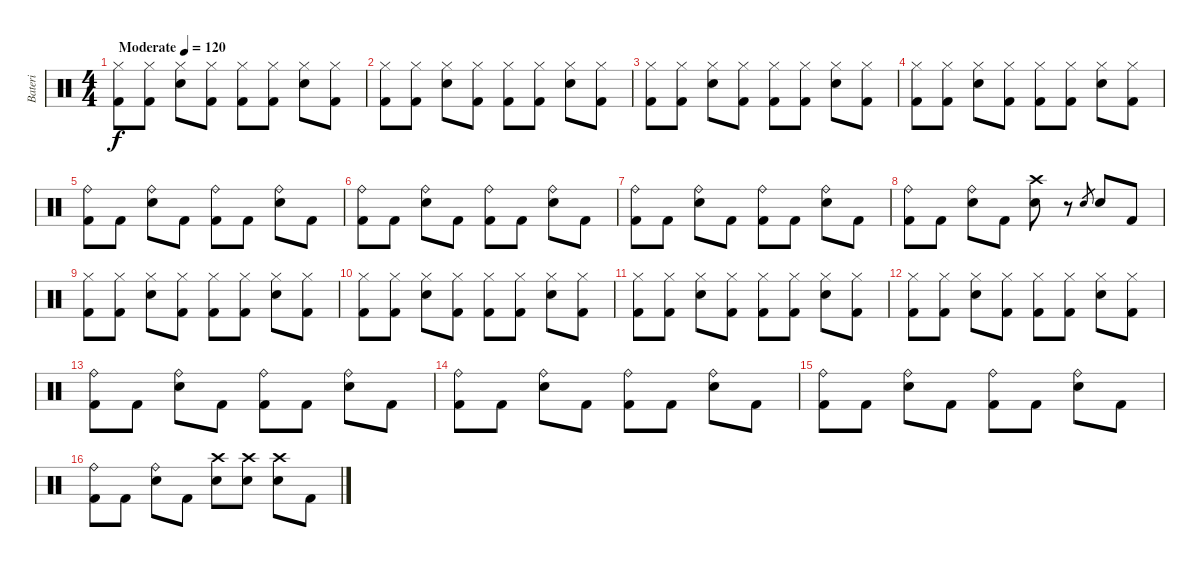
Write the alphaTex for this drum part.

\track ("Bateri" "Bateri") {instrument percussion}
\staff {score}
\articulation defaults
\ts (4 4)
\tempo (120 "Moderate")
\clef neutral
\ks c
("Hi-Hat (closed)" "Kick (hit) 2").8{dy f} ("Hi-Hat (closed)" "Kick (hit) 2").8 ("Hi-Hat (closed)" "Snare (hit) 2").8 ("Hi-Hat (closed)" "Kick (hit) 2").8 ("Hi-Hat (closed)" "Kick (hit) 2").8 ("Hi-Hat (closed)" "Kick (hit) 2").8 ("Hi-Hat (closed)" "Snare (hit) 2").8 ("Hi-Hat (closed)" "Kick (hit) 2").8 |
("Hi-Hat (closed)" "Kick (hit) 2").8 ("Hi-Hat (closed)" "Kick (hit) 2").8 ("Hi-Hat (closed)" "Snare (hit) 2").8 ("Hi-Hat (closed)" "Kick (hit) 2").8 ("Hi-Hat (closed)" "Kick (hit) 2").8 ("Hi-Hat (closed)" "Kick (hit) 2").8 ("Hi-Hat (closed)" "Snare (hit) 2").8 ("Hi-Hat (closed)" "Kick (hit) 2").8 |
("Hi-Hat (closed)" "Kick (hit) 2").8 ("Hi-Hat (closed)" "Kick (hit) 2").8 ("Hi-Hat (closed)" "Snare (hit) 2").8 ("Hi-Hat (closed)" "Kick (hit) 2").8 ("Hi-Hat (closed)" "Kick (hit) 2").8 ("Hi-Hat (closed)" "Kick (hit) 2").8 ("Hi-Hat (closed)" "Snare (hit) 2").8 ("Hi-Hat (closed)" "Kick (hit) 2").8 |
("Hi-Hat (closed)" "Kick (hit) 2").8 ("Hi-Hat (closed)" "Kick (hit) 2").8 ("Hi-Hat (closed)" "Snare (hit) 2").8 ("Hi-Hat (closed)" "Kick (hit) 2").8 ("Hi-Hat (closed)" "Kick (hit) 2").8 ("Hi-Hat (closed)" "Kick (hit) 2").8 ("Hi-Hat (closed)" "Snare (hit) 2").8 ("Hi-Hat (closed)" "Kick (hit) 2").8 |
("Ride (bell)" "Kick (hit) 2").8 "Kick (hit) 2".8 ("Ride (bell)" "Snare (hit) 2").8 "Kick (hit) 2".8 ("Ride (bell)" "Kick (hit) 2").8 "Kick (hit) 2".8 ("Ride (bell)" "Snare (hit) 2").8 "Kick (hit) 2".8 |
("Ride (bell)" "Kick (hit) 2").8 "Kick (hit) 2".8 ("Ride (bell)" "Snare (hit) 2").8 "Kick (hit) 2".8 ("Ride (bell)" "Kick (hit) 2").8 "Kick (hit) 2".8 ("Ride (bell)" "Snare (hit) 2").8 "Kick (hit) 2".8 |
("Ride (bell)" "Kick (hit) 2").8 "Kick (hit) 2".8 ("Ride (bell)" "Snare (hit) 2").8 "Kick (hit) 2".8 ("Ride (bell)" "Kick (hit) 2").8 "Kick (hit) 2".8 ("Ride (bell)" "Snare (hit) 2").8 "Kick (hit) 2".8 |
("Ride (bell)" "Kick (hit) 2").8 "Kick (hit) 2".8 ("Ride (bell)" "Snare (hit) 2").8 "Kick (hit) 2".8 ("Crash high (hit)" "Snare (hit) 2").8 r.8 "Snare (hit) 2".8{gr} "Snare (hit) 2".8 "Kick (hit) 2".8 |
("Hi-Hat (closed)" "Kick (hit) 2").8 ("Hi-Hat (closed)" "Kick (hit) 2").8 ("Hi-Hat (closed)" "Snare (hit) 2").8 ("Hi-Hat (closed)" "Kick (hit) 2").8 ("Hi-Hat (closed)" "Kick (hit) 2").8 ("Hi-Hat (closed)" "Kick (hit) 2").8 ("Hi-Hat (closed)" "Snare (hit) 2").8 ("Hi-Hat (closed)" "Kick (hit) 2").8 |
("Hi-Hat (closed)" "Kick (hit) 2").8 ("Hi-Hat (closed)" "Kick (hit) 2").8 ("Hi-Hat (closed)" "Snare (hit) 2").8 ("Hi-Hat (closed)" "Kick (hit) 2").8 ("Hi-Hat (closed)" "Kick (hit) 2").8 ("Hi-Hat (closed)" "Kick (hit) 2").8 ("Hi-Hat (closed)" "Snare (hit) 2").8 ("Hi-Hat (closed)" "Kick (hit) 2").8 |
("Hi-Hat (closed)" "Kick (hit) 2").8 ("Hi-Hat (closed)" "Kick (hit) 2").8 ("Hi-Hat (closed)" "Snare (hit) 2").8 ("Hi-Hat (closed)" "Kick (hit) 2").8 ("Hi-Hat (closed)" "Kick (hit) 2").8 ("Hi-Hat (closed)" "Kick (hit) 2").8 ("Hi-Hat (closed)" "Snare (hit) 2").8 ("Hi-Hat (closed)" "Kick (hit) 2").8 |
("Hi-Hat (closed)" "Kick (hit) 2").8 ("Hi-Hat (closed)" "Kick (hit) 2").8 ("Hi-Hat (closed)" "Snare (hit) 2").8 ("Hi-Hat (closed)" "Kick (hit) 2").8 ("Hi-Hat (closed)" "Kick (hit) 2").8 ("Hi-Hat (closed)" "Kick (hit) 2").8 ("Hi-Hat (closed)" "Snare (hit) 2").8 ("Hi-Hat (closed)" "Kick (hit) 2").8 |
("Ride (bell)" "Kick (hit) 2").8 "Kick (hit) 2".8 ("Ride (bell)" "Snare (hit) 2").8 "Kick (hit) 2".8 ("Ride (bell)" "Kick (hit) 2").8 "Kick (hit) 2".8 ("Ride (bell)" "Snare (hit) 2").8 "Kick (hit) 2".8 |
("Ride (bell)" "Kick (hit) 2").8 "Kick (hit) 2".8 ("Ride (bell)" "Snare (hit) 2").8 "Kick (hit) 2".8 ("Ride (bell)" "Kick (hit) 2").8 "Kick (hit) 2".8 ("Ride (bell)" "Snare (hit) 2").8 "Kick (hit) 2".8 |
("Ride (bell)" "Kick (hit) 2").8 "Kick (hit) 2".8 ("Ride (bell)" "Snare (hit) 2").8 "Kick (hit) 2".8 ("Ride (bell)" "Kick (hit) 2").8 "Kick (hit) 2".8 ("Ride (bell)" "Snare (hit) 2").8 "Kick (hit) 2".8 |
("Ride (bell)" "Kick (hit) 2").8 "Kick (hit) 2".8 ("Ride (bell)" "Snare (hit) 2").8 "Kick (hit) 2".8 ("Crash high (hit)" "Snare (hit) 2").8 ("Crash high (hit)" "Snare (hit) 2").8 ("Crash high (hit)" "Snare (hit) 2").8 "Kick (hit) 2".8
